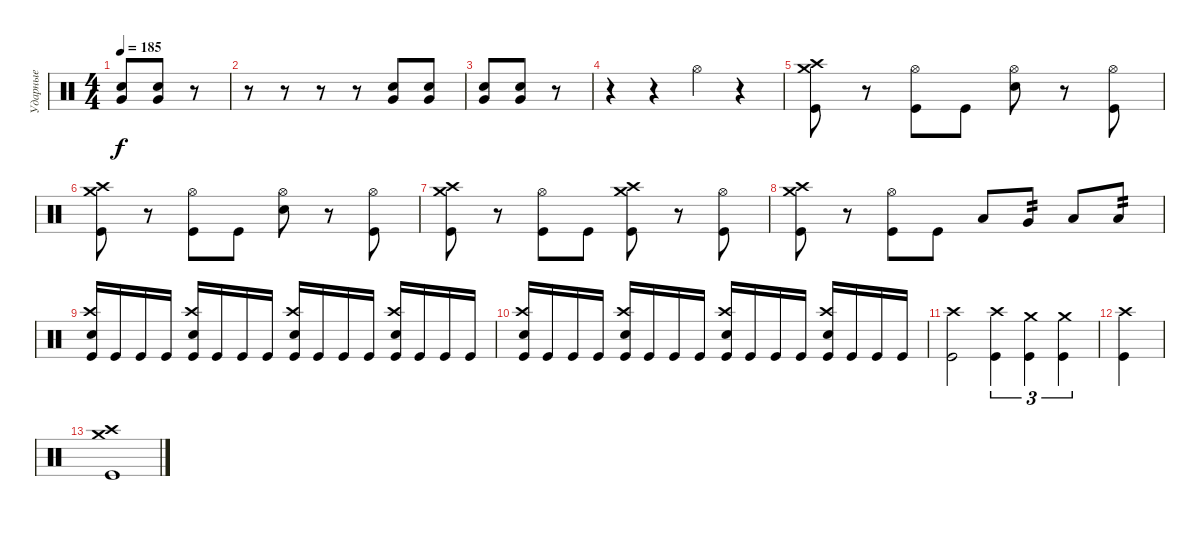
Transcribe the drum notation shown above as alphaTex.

\track ("Ударные" "Ударные") {instrument percussion}
\staff {score}
\articulation defaults
\ts (4 4)
\tempo 185
\clef neutral
\ks c
("Very Low Tom (hit)" "Snare (hit) 2").8{dy f} ("Very Low Tom (hit)" "Snare (hit) 2").8 r.8 |
r.8 r.8 r.8 r.8 ("Snare (hit) 2" "Very Low Tom (hit)").8 ("Snare (hit) 2" "Very Low Tom (hit)").8 |
("Very Low Tom (hit)" "Snare (hit) 2").8 ("Very Low Tom (hit)" "Snare (hit) 2").8 r.8 |
r.4 r.4 "Hi-Hat (open)".4 r.4 |
("Crash high (hit)" "Crash medium (hit)" "Kick (hit)").8 r.8 ("Hi-Hat (open)" "Kick (hit)").8 "Kick (hit)".8 ("Hi-Hat (open)" "Snare (hit) 2").8 r.8 ("Hi-Hat (open)" "Kick (hit)").8 |
("Crash high (hit)" "Crash medium (hit)" "Kick (hit)").8 r.8 ("Hi-Hat (open)" "Kick (hit)").8 "Kick (hit)".8 ("Hi-Hat (open)" "Snare (hit) 2").8 r.8 ("Hi-Hat (open)" "Kick (hit)").8 |
("Crash high (hit)" "Crash medium (hit)" "Kick (hit)").8 r.8 ("Hi-Hat (open)" "Kick (hit)").8 "Kick (hit)".8 ("Crash high (hit)" "Kick (hit)" "Crash medium (hit)").8 r.8 ("Hi-Hat (open)" "Kick (hit)").8 |
("Crash high (hit)" "Crash medium (hit)" "Kick (hit)").8 r.8 ("Hi-Hat (open)" "Kick (hit)").8 "Kick (hit)".8 "Low Tom (hit)".8 "Very Low Tom (hit)".8{tp 2} "Low Floor Tom (hit)".8 "Low Floor Tom (hit)".8{tp 2} |
("Kick (hit)" "Snare (hit) 2" "Crash high (hit)").16 "Kick (hit)".16 "Kick (hit)".16 "Kick (hit)".16 ("Kick (hit)" "Snare (hit) 2" "Crash high (hit)").16 "Kick (hit)".16 "Kick (hit)".16 "Kick (hit)".16 ("Kick (hit)" "Snare (hit) 2" "Crash high (hit)").16 "Kick (hit)".16 "Kick (hit)".16 "Kick (hit)".16 ("Kick (hit)" "Snare (hit) 2" "Crash high (hit)").16 "Kick (hit)".16 "Kick (hit)".16 "Kick (hit)".16 |
("Kick (hit)" "Snare (hit) 2" "Crash high (hit)").16 "Kick (hit)".16 "Kick (hit)".16 "Kick (hit)".16 ("Kick (hit)" "Snare (hit) 2" "Crash high (hit)").16 "Kick (hit)".16 "Kick (hit)".16 "Kick (hit)".16 ("Kick (hit)" "Snare (hit) 2" "Crash high (hit)").16 "Kick (hit)".16 "Kick (hit)".16 "Kick (hit)".16 ("Kick (hit)" "Snare (hit) 2" "Crash high (hit)").16 "Kick (hit)".16 "Kick (hit)".16 "Kick (hit)".16 |
("Kick (hit)" "Crash high (hit)").2 ("Kick (hit)" "Crash high (hit)").4{tu (3 2)} ("Kick (hit)" "Crash medium (hit)").4{tu (3 2)} ("Kick (hit)" "Crash medium (hit)").4{tu (3 2)} |
("Crash high (hit)" "Kick (hit)").4 |
("Crash high (hit)" "Crash medium (hit)" "Kick (hit)").1
